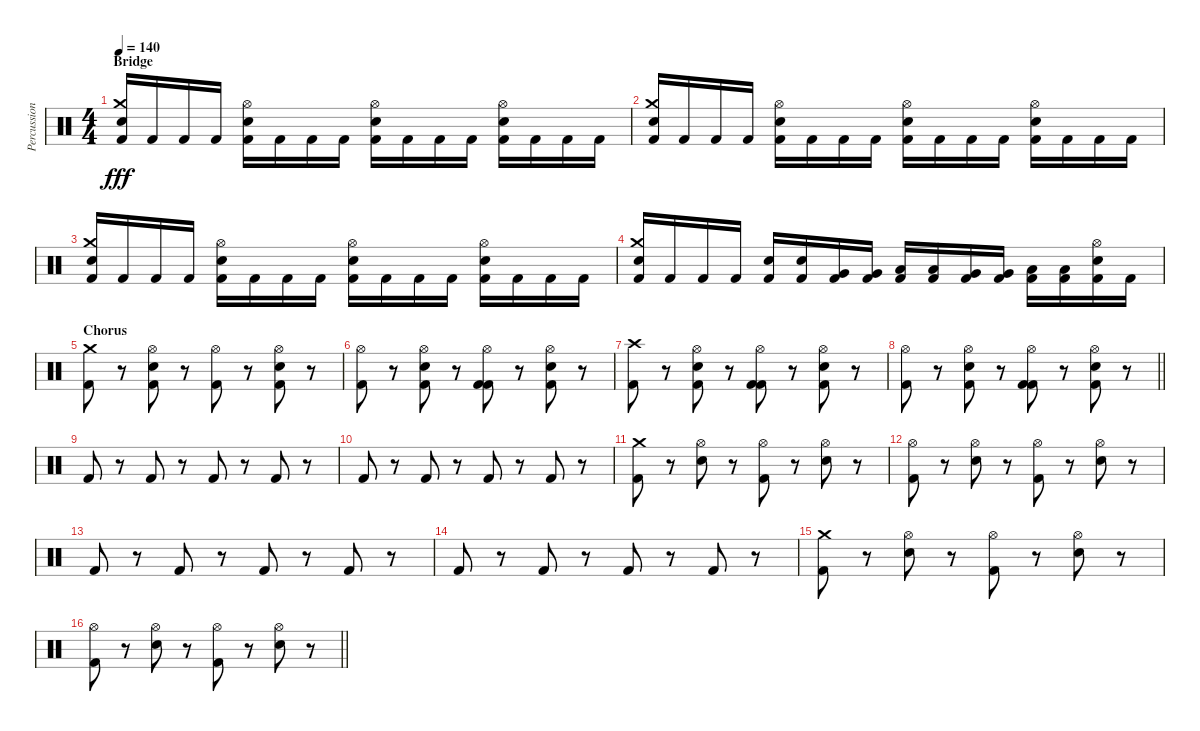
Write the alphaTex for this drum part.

\track ("Percussion" "Percussion") {instrument percussion}
\staff {score}
\articulation defaults
\ts (4 4)
\section ("" "Bridge")
\tempo 140
\clef neutral
\ks c
("Electric Snare (hit)" "Crash medium (hit)" "Kick (hit) 2").16{dy fff} "Kick (hit) 2".16 "Kick (hit) 2".16 "Kick (hit) 2".16 ("Electric Snare (hit)" "Hi-Hat (open)" "Kick (hit) 2").16 "Kick (hit) 2".16 "Kick (hit) 2".16 "Kick (hit) 2".16 ("Electric Snare (hit)" "Hi-Hat (open)" "Kick (hit) 2").16 "Kick (hit) 2".16 "Kick (hit) 2".16 "Kick (hit) 2".16 ("Electric Snare (hit)" "Hi-Hat (open)" "Kick (hit) 2").16 "Kick (hit) 2".16 "Kick (hit) 2".16 "Kick (hit) 2".16 |
("Electric Snare (hit)" "Crash medium (hit)" "Kick (hit) 2").16 "Kick (hit) 2".16 "Kick (hit) 2".16 "Kick (hit) 2".16 ("Electric Snare (hit)" "Hi-Hat (open)" "Kick (hit) 2").16 "Kick (hit) 2".16 "Kick (hit) 2".16 "Kick (hit) 2".16 ("Electric Snare (hit)" "Hi-Hat (open)" "Kick (hit) 2").16 "Kick (hit) 2".16 "Kick (hit) 2".16 "Kick (hit) 2".16 ("Electric Snare (hit)" "Hi-Hat (open)" "Kick (hit) 2").16 "Kick (hit) 2".16 "Kick (hit) 2".16 "Kick (hit) 2".16 |
("Electric Snare (hit)" "Crash medium (hit)" "Kick (hit) 2").16 "Kick (hit) 2".16 "Kick (hit) 2".16 "Kick (hit) 2".16 ("Electric Snare (hit)" "Hi-Hat (open)" "Kick (hit) 2").16 "Kick (hit) 2".16 "Kick (hit) 2".16 "Kick (hit) 2".16 ("Electric Snare (hit)" "Hi-Hat (open)" "Kick (hit) 2").16 "Kick (hit) 2".16 "Kick (hit) 2".16 "Kick (hit) 2".16 ("Electric Snare (hit)" "Hi-Hat (open)" "Kick (hit) 2").16 "Kick (hit) 2".16 "Kick (hit) 2".16 "Kick (hit) 2".16 |
("Electric Snare (hit)" "Crash medium (hit)" "Kick (hit) 2").16 "Kick (hit) 2".16 "Kick (hit) 2".16 "Kick (hit) 2".16 ("Electric Snare (hit)" "Kick (hit) 2").16 ("Electric Snare (hit)" "Kick (hit) 2").16 ("Very Low Tom (hit)" "Kick (hit) 2").16 ("Very Low Tom (hit)" "Kick (hit) 2").16 ("Low Tom (hit)" "Kick (hit) 2").16 ("Low Tom (hit)" "Kick (hit) 2").16 ("Very Low Tom (hit)" "Kick (hit) 2").16 ("Very Low Tom (hit)" "Kick (hit) 2").16 ("Low Tom (hit)" "Kick (hit) 2").16 ("Low Tom (hit)" "Kick (hit) 2").16 ("Hi-Hat (open)" "Electric Snare (hit)" "Kick (hit) 2").16 "Kick (hit) 2".16 |
\section ("" "Chorus")
("Crash medium (hit)" "Kick (hit) 2").8 r.8 ("Kick (hit) 2" "Hi-Hat (open)" "Electric Snare (hit)").8 r.8 ("Hi-Hat (open)" "Kick (hit) 2").8 r.8 ("Kick (hit) 2" "Hi-Hat (open)" "Electric Snare (hit)").8 r.8 |
("Hi-Hat (open)" "Kick (hit) 2").8 r.8 ("Kick (hit) 2" "Hi-Hat (open)" "Electric Snare (hit)").8 r.8 ("Kick (hit) 2" "Hi-Hat (open)" "Kick (hit) 2").8 r.8 ("Kick (hit) 2" "Hi-Hat (open)" "Electric Snare (hit)").8 r.8 |
("Crash high (hit)" "Kick (hit) 2").8 r.8 ("Kick (hit) 2" "Hi-Hat (open)" "Electric Snare (hit)").8 r.8 ("Kick (hit) 2" "Hi-Hat (open)" "Kick (hit) 2").8 r.8 ("Kick (hit) 2" "Hi-Hat (open)" "Electric Snare (hit)").8 r.8 |
\barLineRight lightlight
("Hi-Hat (open)" "Kick (hit) 2").8 r.8 ("Kick (hit) 2" "Hi-Hat (open)" "Electric Snare (hit)").8 r.8 ("Kick (hit) 2" "Hi-Hat (open)" "Kick (hit) 2").8 r.8 ("Kick (hit) 2" "Hi-Hat (open)" "Electric Snare (hit)").8 r.8 |
\section ("" "")
"Kick (hit) 2".8 r.8 "Kick (hit) 2".8 r.8 "Kick (hit) 2".8 r.8 "Kick (hit) 2".8 r.8 |
"Kick (hit) 2".8 r.8 "Kick (hit) 2".8 r.8 "Kick (hit) 2".8 r.8 "Kick (hit) 2".8 r.8 |
("Crash medium (hit)" "Kick (hit) 2").8 r.8 ("Hi-Hat (open)" "Electric Snare (hit)").8 r.8 ("Hi-Hat (open)" "Kick (hit) 2").8 r.8 ("Hi-Hat (open)" "Electric Snare (hit)").8 r.8 |
("Hi-Hat (open)" "Kick (hit) 2").8 r.8 ("Hi-Hat (open)" "Electric Snare (hit)").8 r.8 ("Hi-Hat (open)" "Kick (hit) 2").8 r.8 ("Hi-Hat (open)" "Electric Snare (hit)").8 r.8 |
"Kick (hit) 2".8 r.8 "Kick (hit) 2".8 r.8 "Kick (hit) 2".8 r.8 "Kick (hit) 2".8 r.8 |
"Kick (hit) 2".8 r.8 "Kick (hit) 2".8 r.8 "Kick (hit) 2".8 r.8 "Kick (hit) 2".8 r.8 |
("Crash medium (hit)" "Kick (hit) 2").8 r.8 ("Hi-Hat (open)" "Electric Snare (hit)").8 r.8 ("Hi-Hat (open)" "Kick (hit) 2").8 r.8 ("Hi-Hat (open)" "Electric Snare (hit)").8 r.8 |
\barLineRight lightlight
("Hi-Hat (open)" "Kick (hit) 2").8 r.8 ("Hi-Hat (open)" "Electric Snare (hit)").8 r.8 ("Hi-Hat (open)" "Kick (hit) 2").8 r.8 ("Hi-Hat (open)" "Electric Snare (hit)").8 r.8
